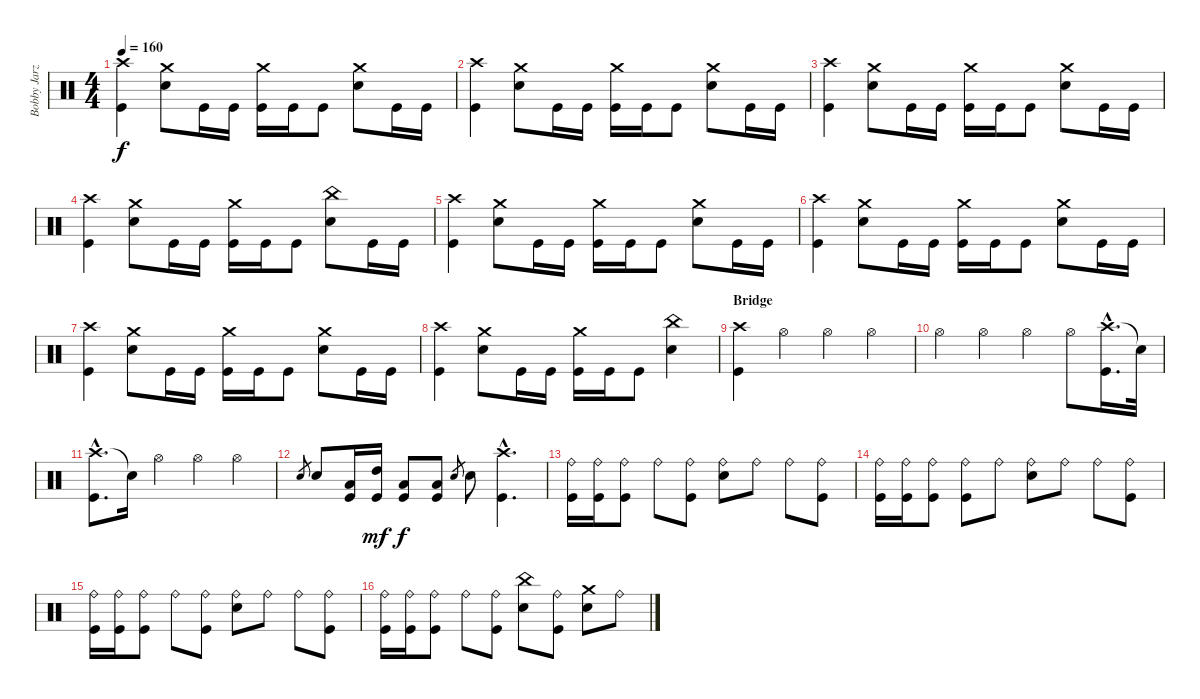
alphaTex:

\track ("Bobby Jarzombek" "Bobby Jarz") {instrument percussion}
\staff {score}
\articulation defaults
\ts (4 4)
\tempo 160
\clef neutral
\ks c
("Crash high (hit)" "Kick (hit)").4{dy f} ("Crash medium (hit)" "Electric Snare (hit)").8 "Kick (hit)".16 "Kick (hit)".16 ("Crash medium (hit)" "Kick (hit)").16 "Kick (hit)".16 "Kick (hit)".8 ("Crash medium (hit)" "Electric Snare (hit)").8 "Kick (hit)".16 "Kick (hit)".16 |
("Crash high (hit)" "Kick (hit)").4 ("Crash medium (hit)" "Electric Snare (hit)").8 "Kick (hit)".16 "Kick (hit)".16 ("Crash medium (hit)" "Kick (hit)").16 "Kick (hit)".16 "Kick (hit)".8 ("Crash medium (hit)" "Electric Snare (hit)").8 "Kick (hit)".16 "Kick (hit)".16 |
("Crash high (hit)" "Kick (hit)").4 ("Crash medium (hit)" "Electric Snare (hit)").8 "Kick (hit)".16 "Kick (hit)".16 ("Crash medium (hit)" "Kick (hit)").16 "Kick (hit)".16 "Kick (hit)".8 ("Crash medium (hit)" "Electric Snare (hit)").8 "Kick (hit)".16 "Kick (hit)".16 |
("Crash high (hit)" "Kick (hit)").4 ("Crash medium (hit)" "Electric Snare (hit)").8 "Kick (hit)".16 "Kick (hit)".16 ("Crash medium (hit)" "Kick (hit)").16 "Kick (hit)".16 "Kick (hit)".8 ("China (hit)" "Electric Snare (hit)").8 "Kick (hit)".16 "Kick (hit)".16 |
("Crash high (hit)" "Kick (hit)").4 ("Crash medium (hit)" "Electric Snare (hit)").8 "Kick (hit)".16 "Kick (hit)".16 ("Crash medium (hit)" "Kick (hit)").16 "Kick (hit)".16 "Kick (hit)".8 ("Crash medium (hit)" "Electric Snare (hit)").8 "Kick (hit)".16 "Kick (hit)".16 |
("Crash high (hit)" "Kick (hit)").4 ("Crash medium (hit)" "Electric Snare (hit)").8 "Kick (hit)".16 "Kick (hit)".16 ("Crash medium (hit)" "Kick (hit)").16 "Kick (hit)".16 "Kick (hit)".8 ("Crash medium (hit)" "Electric Snare (hit)").8 "Kick (hit)".16 "Kick (hit)".16 |
("Crash high (hit)" "Kick (hit)").4 ("Crash medium (hit)" "Electric Snare (hit)").8 "Kick (hit)".16 "Kick (hit)".16 ("Crash medium (hit)" "Kick (hit)").16 "Kick (hit)".16 "Kick (hit)".8 ("Crash medium (hit)" "Electric Snare (hit)").8 "Kick (hit)".16 "Kick (hit)".16 |
("Crash high (hit)" "Kick (hit)").4 ("Crash medium (hit)" "Electric Snare (hit)").8 "Kick (hit)".16 "Kick (hit)".16 ("Crash medium (hit)" "Kick (hit)").16 "Kick (hit)".16 "Kick (hit)".8 ("China (hit)" "Electric Snare (hit)").4 |
\section ("" "Bridge")
("Crash high (hit)" "Kick (hit)").4 "Hi-Hat (open)".4 "Hi-Hat (open)".4 "Hi-Hat (open)".4 |
"Hi-Hat (open)".4 "Hi-Hat (open)".4 "Hi-Hat (open)".4 "Hi-Hat (open)".8 ("Crash high (hit)"{hac} "Kick (hit)"{hac}).16{d} "Snare (hit)"{t}.32{volume 0} |
("Crash high (hit)"{hac} "Kick (hit)"{hac}).8{d volume 13} "Snare (hit)"{t}.16{volume 0} "Hi-Hat (open)".4{volume 13} "Hi-Hat (open)".4 "Hi-Hat (open)".4 |
"Electric Snare (hit)".8{gr} "Electric Snare (hit)".8 ("Low Tom (hit)" "Kick (hit)").16 ("High Tom (hit)" "Kick (hit)").16{dy mf} ("Low Tom (hit)" "Kick (hit)").8{dy f} ("Low Tom (hit)" "Kick (hit)").8 "Electric Snare (hit)".8{gr} "Electric Snare (hit)".8 ("Crash high (hit)"{hac} "Kick (hit)"{hac}).4{d} |
("Ride (bell)" "Kick (hit)").16 ("Ride (bell)" "Kick (hit)").16 ("Ride (bell)" "Kick (hit)").8 "Ride (bell)".8 ("Ride (bell)" "Kick (hit)").8 ("Ride (bell)" "Electric Snare (hit)").8 "Ride (bell)".8 "Ride (bell)".8 ("Ride (bell)" "Kick (hit)").8 |
("Ride (bell)" "Kick (hit)").16 ("Ride (bell)" "Kick (hit)").16 ("Ride (bell)" "Kick (hit)").8 ("Ride (bell)" "Kick (hit)").8 "Ride (bell)".8 ("Ride (bell)" "Electric Snare (hit)").8 "Ride (bell)".8 "Ride (bell)".8 ("Ride (bell)" "Kick (hit)").8 |
("Ride (bell)" "Kick (hit)").16 ("Ride (bell)" "Kick (hit)").16 ("Ride (bell)" "Kick (hit)").8 "Ride (bell)".8 ("Ride (bell)" "Kick (hit)").8 ("Ride (bell)" "Electric Snare (hit)").8 "Ride (bell)".8 "Ride (bell)".8 ("Ride (bell)" "Kick (hit)").8 |
("Ride (bell)" "Kick (hit)").16 ("Ride (bell)" "Kick (hit)").16 ("Ride (bell)" "Kick (hit)").8 "Ride (bell)".8 ("Ride (bell)" "Kick (hit)").8 ("China (hit)" "Electric Snare (hit)").8 ("Ride (bell)" "Kick (hit)").8 ("Crash medium (hit)" "Electric Snare (hit)").8 "Ride (bell)".8
